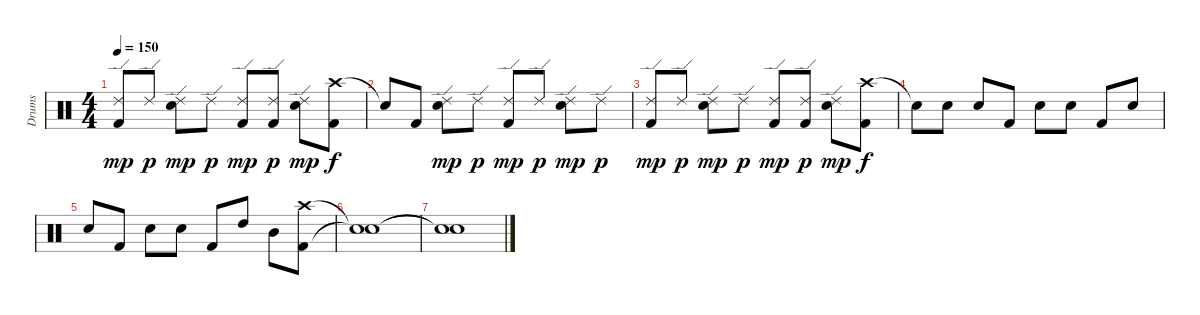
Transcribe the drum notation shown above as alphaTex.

\track ("Drums" "Drums") {instrument percussion}
\staff {score}
\articulation defaults
\ts (4 4)
\tempo 150
\clef neutral
\ks c
("Ride (edge) 2" "Kick (hit) 2").8{dy mp} "Ride (edge) 2".8{dy p} ("Ride (edge) 2" "Electric Snare (hit)").8{dy mp} "Ride (edge) 2".8{dy p} ("Ride (edge) 2" "Kick (hit) 2").8{dy mp} ("Ride (edge) 2" "Kick (hit) 2").8{dy p} ("Ride (edge) 2" "Electric Snare (hit)").8{dy mp} ("Crash high (hit)" "Kick (hit) 2").8{dy f} |
"Snare (hit)"{t}.8 "Kick (hit) 2".8 ("Ride (edge) 2" "Electric Snare (hit)").8{dy mp} "Ride (edge) 2".8{dy p} ("Ride (edge) 2" "Kick (hit) 2").8{dy mp} "Ride (edge) 2".8{dy p} ("Ride (edge) 2" "Electric Snare (hit)").8{dy mp} "Ride (edge) 2".8{dy p} |
("Ride (edge) 2" "Kick (hit) 2").8{dy mp} "Ride (edge) 2".8{dy p} ("Ride (edge) 2" "Electric Snare (hit)").8{dy mp} "Ride (edge) 2".8{dy p} ("Ride (edge) 2" "Kick (hit) 2").8{dy mp} ("Ride (edge) 2" "Kick (hit) 2").8{dy p} ("Ride (edge) 2" "Electric Snare (hit)").8{dy mp} ("Crash high (hit)" "Kick (hit) 2").8{dy f} |
"Snare (hit)"{t}.8 "Electric Snare (hit)".8 "Electric Snare (hit)".8 "Kick (hit) 2".8 "Electric Snare (hit)".8 "Electric Snare (hit)".8 "Kick (hit) 2".8 "Electric Snare (hit)".8 |
"Electric Snare (hit)".8 "Kick (hit) 2".8 "Electric Snare (hit)".8 "Electric Snare (hit)".8 "Kick (hit) 2".8 "High Tom (hit)".8 "Mid Tom (hit)".8 ("Crash high (hit)" "Kick (hit) 2").8 |
("Snare (hit)"{t} "Snare (hit)"{t}).1 |
("Snare (hit)"{t} "Snare (hit)"{t}).1
